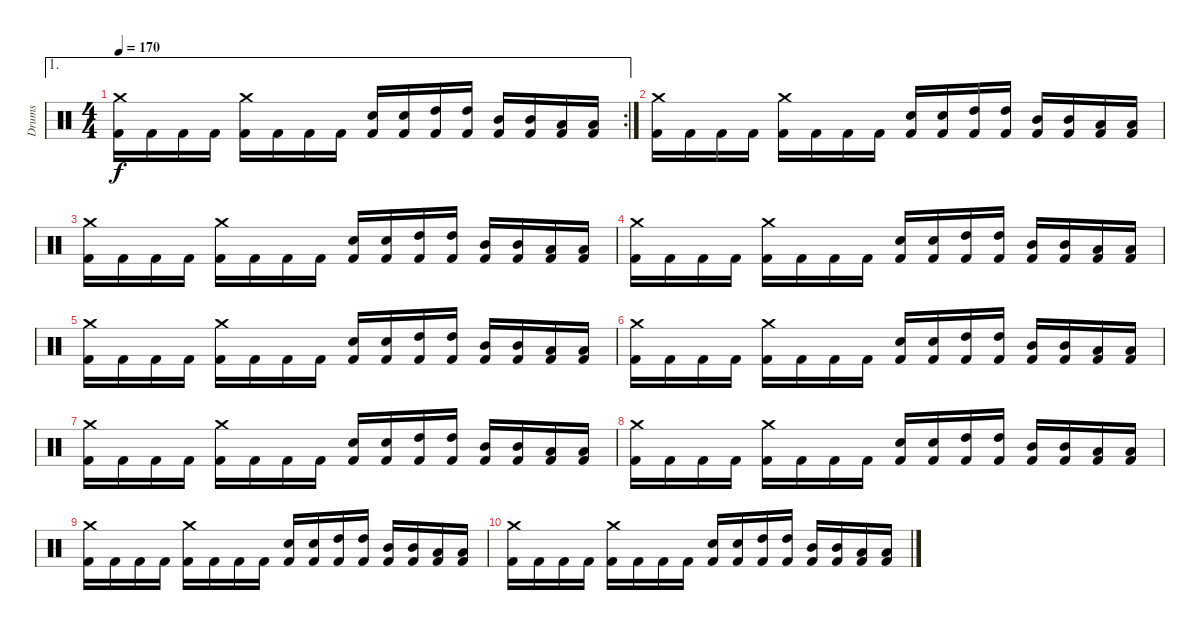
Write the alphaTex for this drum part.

\track ("Drums" "Drums") {instrument percussion}
\staff {score}
\articulation defaults
\ae 1
\rc 2
\ts (4 4)
\tempo 170
\clef neutral
\ks c
("Crash medium (hit)" "Kick (hit) 2").16{dy f} "Kick (hit) 2".16 "Kick (hit) 2".16 "Kick (hit) 2".16 ("Crash medium (hit)" "Kick (hit) 2").16 "Kick (hit) 2".16 "Kick (hit) 2".16 "Kick (hit) 2".16 ("Electric Snare (hit)" "Kick (hit) 2").16 ("Electric Snare (hit)" "Kick (hit) 2").16 ("High Tom (hit)" "Kick (hit) 2").16 ("High Tom (hit)" "Kick (hit) 2").16 ("Mid Tom (hit)" "Kick (hit) 2").16 ("Mid Tom (hit)" "Kick (hit) 2").16 ("Low Tom (hit)" "Kick (hit) 2").16 ("Low Tom (hit)" "Kick (hit) 2").16 |
("Crash medium (hit)" "Kick (hit) 2").16 "Kick (hit) 2".16 "Kick (hit) 2".16 "Kick (hit) 2".16 ("Crash medium (hit)" "Kick (hit) 2").16 "Kick (hit) 2".16 "Kick (hit) 2".16 "Kick (hit) 2".16 ("Electric Snare (hit)" "Kick (hit) 2").16 ("Electric Snare (hit)" "Kick (hit) 2").16 ("High Tom (hit)" "Kick (hit) 2").16 ("High Tom (hit)" "Kick (hit) 2").16 ("Mid Tom (hit)" "Kick (hit) 2").16 ("Mid Tom (hit)" "Kick (hit) 2").16 ("Low Tom (hit)" "Kick (hit) 2").16 ("Low Tom (hit)" "Kick (hit) 2").16 |
("Crash medium (hit)" "Kick (hit) 2").16{volume 6} "Kick (hit) 2".16 "Kick (hit) 2".16 "Kick (hit) 2".16 ("Crash medium (hit)" "Kick (hit) 2").16 "Kick (hit) 2".16 "Kick (hit) 2".16 "Kick (hit) 2".16 ("Electric Snare (hit)" "Kick (hit) 2").16 ("Electric Snare (hit)" "Kick (hit) 2").16 ("High Tom (hit)" "Kick (hit) 2").16 ("High Tom (hit)" "Kick (hit) 2").16 ("Mid Tom (hit)" "Kick (hit) 2").16 ("Mid Tom (hit)" "Kick (hit) 2").16 ("Low Tom (hit)" "Kick (hit) 2").16 ("Low Tom (hit)" "Kick (hit) 2").16 |
("Crash medium (hit)" "Kick (hit) 2").16 "Kick (hit) 2".16 "Kick (hit) 2".16 "Kick (hit) 2".16 ("Crash medium (hit)" "Kick (hit) 2").16 "Kick (hit) 2".16 "Kick (hit) 2".16 "Kick (hit) 2".16 ("Electric Snare (hit)" "Kick (hit) 2").16 ("Electric Snare (hit)" "Kick (hit) 2").16 ("High Tom (hit)" "Kick (hit) 2").16 ("High Tom (hit)" "Kick (hit) 2").16 ("Mid Tom (hit)" "Kick (hit) 2").16 ("Mid Tom (hit)" "Kick (hit) 2").16 ("Low Tom (hit)" "Kick (hit) 2").16 ("Low Tom (hit)" "Kick (hit) 2").16 |
("Crash medium (hit)" "Kick (hit) 2").16 "Kick (hit) 2".16 "Kick (hit) 2".16 "Kick (hit) 2".16 ("Crash medium (hit)" "Kick (hit) 2").16 "Kick (hit) 2".16 "Kick (hit) 2".16 "Kick (hit) 2".16 ("Electric Snare (hit)" "Kick (hit) 2").16 ("Electric Snare (hit)" "Kick (hit) 2").16 ("High Tom (hit)" "Kick (hit) 2").16 ("High Tom (hit)" "Kick (hit) 2").16 ("Mid Tom (hit)" "Kick (hit) 2").16 ("Mid Tom (hit)" "Kick (hit) 2").16 ("Low Tom (hit)" "Kick (hit) 2").16 ("Low Tom (hit)" "Kick (hit) 2").16 |
("Crash medium (hit)" "Kick (hit) 2").16 "Kick (hit) 2".16 "Kick (hit) 2".16 "Kick (hit) 2".16 ("Crash medium (hit)" "Kick (hit) 2").16 "Kick (hit) 2".16 "Kick (hit) 2".16 "Kick (hit) 2".16 ("Electric Snare (hit)" "Kick (hit) 2").16 ("Electric Snare (hit)" "Kick (hit) 2").16 ("High Tom (hit)" "Kick (hit) 2").16 ("High Tom (hit)" "Kick (hit) 2").16 ("Mid Tom (hit)" "Kick (hit) 2").16 ("Mid Tom (hit)" "Kick (hit) 2").16 ("Low Tom (hit)" "Kick (hit) 2").16 ("Low Tom (hit)" "Kick (hit) 2").16 |
("Crash medium (hit)" "Kick (hit) 2").16{volume 0} "Kick (hit) 2".16 "Kick (hit) 2".16 "Kick (hit) 2".16 ("Crash medium (hit)" "Kick (hit) 2").16 "Kick (hit) 2".16 "Kick (hit) 2".16 "Kick (hit) 2".16 ("Electric Snare (hit)" "Kick (hit) 2").16 ("Electric Snare (hit)" "Kick (hit) 2").16 ("High Tom (hit)" "Kick (hit) 2").16 ("High Tom (hit)" "Kick (hit) 2").16 ("Mid Tom (hit)" "Kick (hit) 2").16 ("Mid Tom (hit)" "Kick (hit) 2").16 ("Low Tom (hit)" "Kick (hit) 2").16 ("Low Tom (hit)" "Kick (hit) 2").16 |
("Crash medium (hit)" "Kick (hit) 2").16 "Kick (hit) 2".16 "Kick (hit) 2".16 "Kick (hit) 2".16 ("Crash medium (hit)" "Kick (hit) 2").16 "Kick (hit) 2".16 "Kick (hit) 2".16 "Kick (hit) 2".16 ("Electric Snare (hit)" "Kick (hit) 2").16 ("Electric Snare (hit)" "Kick (hit) 2").16 ("High Tom (hit)" "Kick (hit) 2").16 ("High Tom (hit)" "Kick (hit) 2").16 ("Mid Tom (hit)" "Kick (hit) 2").16 ("Mid Tom (hit)" "Kick (hit) 2").16 ("Low Tom (hit)" "Kick (hit) 2").16 ("Low Tom (hit)" "Kick (hit) 2").16 |
("Crash medium (hit)" "Kick (hit) 2").16 "Kick (hit) 2".16 "Kick (hit) 2".16 "Kick (hit) 2".16 ("Crash medium (hit)" "Kick (hit) 2").16 "Kick (hit) 2".16 "Kick (hit) 2".16 "Kick (hit) 2".16 ("Electric Snare (hit)" "Kick (hit) 2").16 ("Electric Snare (hit)" "Kick (hit) 2").16 ("High Tom (hit)" "Kick (hit) 2").16 ("High Tom (hit)" "Kick (hit) 2").16 ("Mid Tom (hit)" "Kick (hit) 2").16 ("Mid Tom (hit)" "Kick (hit) 2").16 ("Low Tom (hit)" "Kick (hit) 2").16 ("Low Tom (hit)" "Kick (hit) 2").16 |
("Crash medium (hit)" "Kick (hit) 2").16 "Kick (hit) 2".16 "Kick (hit) 2".16 "Kick (hit) 2".16 ("Crash medium (hit)" "Kick (hit) 2").16 "Kick (hit) 2".16 "Kick (hit) 2".16 "Kick (hit) 2".16 ("Electric Snare (hit)" "Kick (hit) 2").16 ("Electric Snare (hit)" "Kick (hit) 2").16 ("High Tom (hit)" "Kick (hit) 2").16 ("High Tom (hit)" "Kick (hit) 2").16 ("Mid Tom (hit)" "Kick (hit) 2").16 ("Mid Tom (hit)" "Kick (hit) 2").16 ("Low Tom (hit)" "Kick (hit) 2").16 ("Low Tom (hit)" "Kick (hit) 2").16
